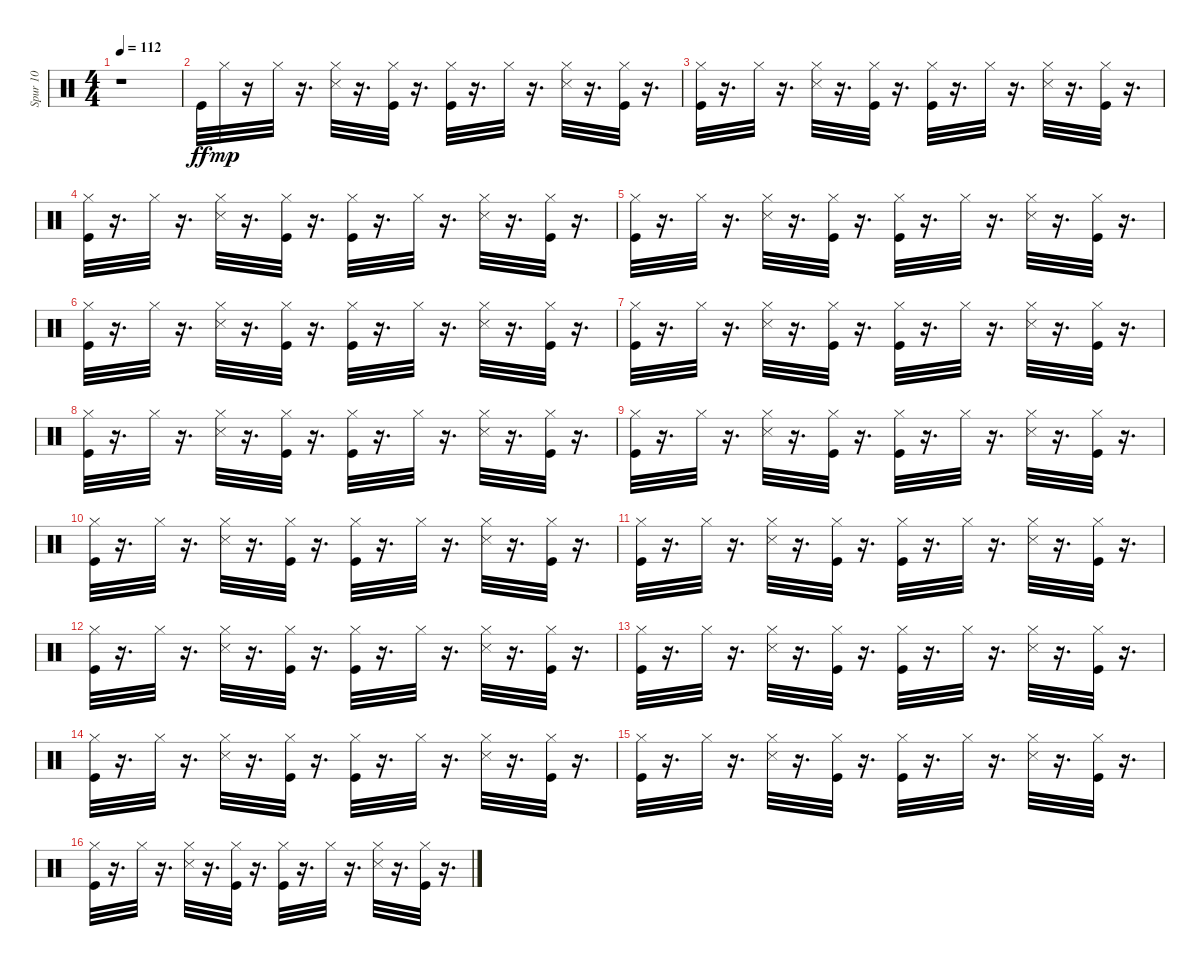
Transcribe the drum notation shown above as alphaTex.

\track ("Spur 10" "Spur 10") {instrument percussion}
\staff {score}
\articulation defaults
\ts (4 4)
\tempo 112
\clef neutral
\ks c
r.1{dy ff} |
"Kick (hit)".32 "Hi-Hat (closed)".32{dy mp} r.16 "Hi-Hat (closed)".32 r.16{d} ("Snare (side stick) 3" "Hi-Hat (closed)").32 r.16{d} ("Kick (hit)" "Hi-Hat (closed)").32 r.16{d} ("Kick (hit)" "Hi-Hat (closed)").32 r.16{d} "Hi-Hat (closed)".32 r.16{d} ("Snare (side stick) 3" "Hi-Hat (closed)").32 r.16{d} ("Kick (hit)" "Hi-Hat (closed)").32 r.16{d} |
("Kick (hit)" "Hi-Hat (closed)").32 r.16{d} "Hi-Hat (closed)".32 r.16{d} ("Snare (side stick) 3" "Hi-Hat (closed)").32 r.16{d} ("Kick (hit)" "Hi-Hat (closed)").32 r.16{d} ("Kick (hit)" "Hi-Hat (closed)").32 r.16{d} "Hi-Hat (closed)".32 r.16{d} ("Snare (side stick) 3" "Hi-Hat (closed)").32 r.16{d} ("Kick (hit)" "Hi-Hat (closed)").32 r.16{d} |
("Kick (hit)" "Hi-Hat (closed)").32 r.16{d} "Hi-Hat (closed)".32 r.16{d} ("Snare (side stick) 3" "Hi-Hat (closed)").32 r.16{d} ("Kick (hit)" "Hi-Hat (closed)").32 r.16{d} ("Kick (hit)" "Hi-Hat (closed)").32 r.16{d} "Hi-Hat (closed)".32 r.16{d} ("Snare (side stick) 3" "Hi-Hat (closed)").32 r.16{d} ("Kick (hit)" "Hi-Hat (closed)").32 r.16{d} |
("Kick (hit)" "Hi-Hat (closed)").32 r.16{d} "Hi-Hat (closed)".32 r.16{d} ("Snare (side stick) 3" "Hi-Hat (closed)").32 r.16{d} ("Kick (hit)" "Hi-Hat (closed)").32 r.16{d} ("Kick (hit)" "Hi-Hat (closed)").32 r.16{d} "Hi-Hat (closed)".32 r.16{d} ("Snare (side stick) 3" "Hi-Hat (closed)").32 r.16{d} ("Kick (hit)" "Hi-Hat (closed)").32 r.16{d} |
("Kick (hit)" "Hi-Hat (closed)").32 r.16{d} "Hi-Hat (closed)".32 r.16{d} ("Snare (side stick) 3" "Hi-Hat (closed)").32 r.16{d} ("Kick (hit)" "Hi-Hat (closed)").32 r.16{d} ("Kick (hit)" "Hi-Hat (closed)").32 r.16{d} "Hi-Hat (closed)".32 r.16{d} ("Snare (side stick) 3" "Hi-Hat (closed)").32 r.16{d} ("Kick (hit)" "Hi-Hat (closed)").32 r.16{d} |
("Kick (hit)" "Hi-Hat (closed)").32 r.16{d} "Hi-Hat (closed)".32 r.16{d} ("Snare (side stick) 3" "Hi-Hat (closed)").32 r.16{d} ("Kick (hit)" "Hi-Hat (closed)").32 r.16{d} ("Kick (hit)" "Hi-Hat (closed)").32 r.16{d} "Hi-Hat (closed)".32 r.16{d} ("Snare (side stick) 3" "Hi-Hat (closed)").32 r.16{d} ("Kick (hit)" "Hi-Hat (closed)").32 r.16{d} |
("Kick (hit)" "Hi-Hat (closed)").32 r.16{d} "Hi-Hat (closed)".32 r.16{d} ("Snare (side stick) 3" "Hi-Hat (closed)").32 r.16{d} ("Kick (hit)" "Hi-Hat (closed)").32 r.16{d} ("Kick (hit)" "Hi-Hat (closed)").32 r.16{d} "Hi-Hat (closed)".32 r.16{d} ("Snare (side stick) 3" "Hi-Hat (closed)").32 r.16{d} ("Kick (hit)" "Hi-Hat (closed)").32 r.16{d} |
("Kick (hit)" "Hi-Hat (closed)").32 r.16{d} "Hi-Hat (closed)".32 r.16{d} ("Snare (side stick) 3" "Hi-Hat (closed)").32 r.16{d} ("Kick (hit)" "Hi-Hat (closed)").32 r.16{d} ("Kick (hit)" "Hi-Hat (closed)").32 r.16{d} "Hi-Hat (closed)".32 r.16{d} ("Snare (side stick) 3" "Hi-Hat (closed)").32 r.16{d} ("Kick (hit)" "Hi-Hat (closed)").32 r.16{d} |
("Kick (hit)" "Hi-Hat (closed)").32 r.16{d} "Hi-Hat (closed)".32 r.16{d} ("Snare (side stick) 3" "Hi-Hat (closed)").32 r.16{d} ("Kick (hit)" "Hi-Hat (closed)").32 r.16{d} ("Kick (hit)" "Hi-Hat (closed)").32 r.16{d} "Hi-Hat (closed)".32 r.16{d} ("Snare (side stick) 3" "Hi-Hat (closed)").32 r.16{d} ("Kick (hit)" "Hi-Hat (closed)").32 r.16{d} |
("Kick (hit)" "Hi-Hat (closed)").32 r.16{d} "Hi-Hat (closed)".32 r.16{d} ("Snare (side stick) 3" "Hi-Hat (closed)").32 r.16{d} ("Kick (hit)" "Hi-Hat (closed)").32 r.16{d} ("Kick (hit)" "Hi-Hat (closed)").32 r.16{d} "Hi-Hat (closed)".32 r.16{d} ("Snare (side stick) 3" "Hi-Hat (closed)").32 r.16{d} ("Kick (hit)" "Hi-Hat (closed)").32 r.16{d} |
("Kick (hit)" "Hi-Hat (closed)").32 r.16{d} "Hi-Hat (closed)".32 r.16{d} ("Snare (side stick) 3" "Hi-Hat (closed)").32 r.16{d} ("Kick (hit)" "Hi-Hat (closed)").32 r.16{d} ("Kick (hit)" "Hi-Hat (closed)").32 r.16{d} "Hi-Hat (closed)".32 r.16{d} ("Snare (side stick) 3" "Hi-Hat (closed)").32 r.16{d} ("Kick (hit)" "Hi-Hat (closed)").32 r.16{d} |
("Kick (hit)" "Hi-Hat (closed)").32 r.16{d} "Hi-Hat (closed)".32 r.16{d} ("Snare (side stick) 3" "Hi-Hat (closed)").32 r.16{d} ("Kick (hit)" "Hi-Hat (closed)").32 r.16{d} ("Kick (hit)" "Hi-Hat (closed)").32 r.16{d} "Hi-Hat (closed)".32 r.16{d} ("Snare (side stick) 3" "Hi-Hat (closed)").32 r.16{d} ("Kick (hit)" "Hi-Hat (closed)").32 r.16{d} |
("Kick (hit)" "Hi-Hat (closed)").32 r.16{d} "Hi-Hat (closed)".32 r.16{d} ("Snare (side stick) 3" "Hi-Hat (closed)").32 r.16{d} ("Kick (hit)" "Hi-Hat (closed)").32 r.16{d} ("Kick (hit)" "Hi-Hat (closed)").32 r.16{d} "Hi-Hat (closed)".32 r.16{d} ("Snare (side stick) 3" "Hi-Hat (closed)").32 r.16{d} ("Kick (hit)" "Hi-Hat (closed)").32 r.16{d} |
("Kick (hit)" "Hi-Hat (closed)").32 r.16{d} "Hi-Hat (closed)".32 r.16{d} ("Snare (side stick) 3" "Hi-Hat (closed)").32 r.16{d} ("Kick (hit)" "Hi-Hat (closed)").32 r.16{d} ("Kick (hit)" "Hi-Hat (closed)").32 r.16{d} "Hi-Hat (closed)".32 r.16{d} ("Snare (side stick) 3" "Hi-Hat (closed)").32 r.16{d} ("Kick (hit)" "Hi-Hat (closed)").32 r.16{d} |
("Kick (hit)" "Hi-Hat (closed)").32 r.16{d} "Hi-Hat (closed)".32 r.16{d} ("Snare (side stick) 3" "Hi-Hat (closed)").32 r.16{d} ("Kick (hit)" "Hi-Hat (closed)").32 r.16{d} ("Kick (hit)" "Hi-Hat (closed)").32 r.16{d} "Hi-Hat (closed)".32 r.16{d} ("Snare (side stick) 3" "Hi-Hat (closed)").32 r.16{d} ("Kick (hit)" "Hi-Hat (closed)").32 r.16{d}
